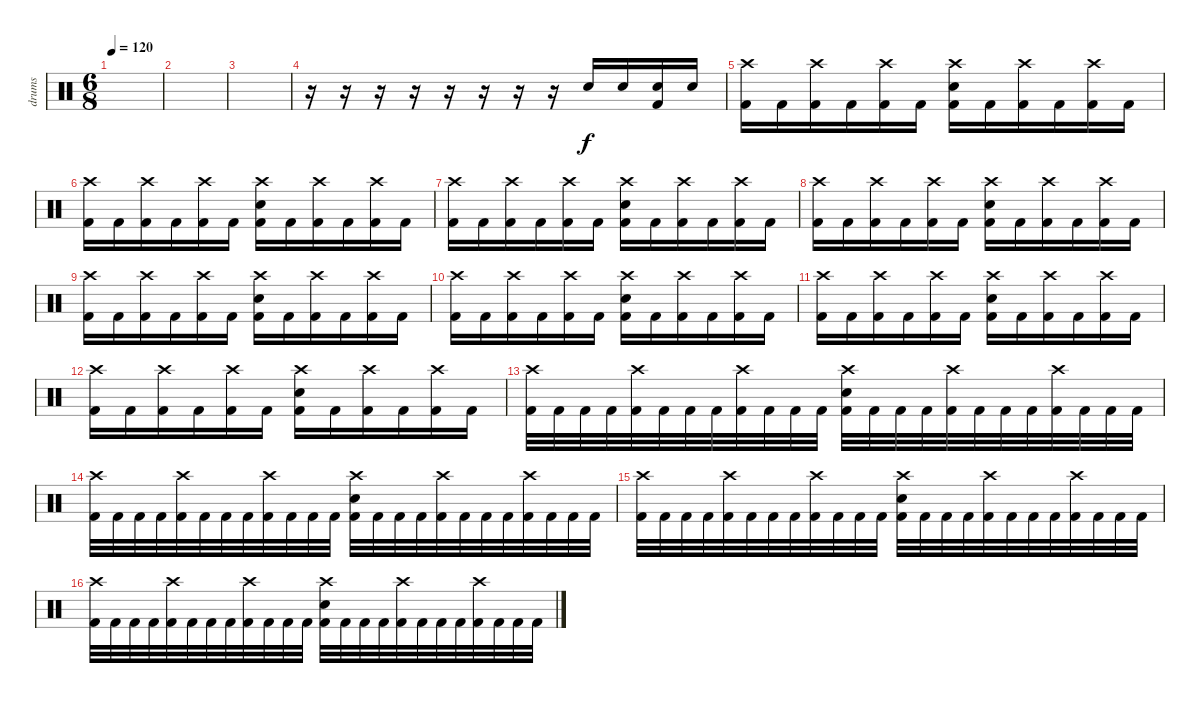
\track ("drums" "drums") {instrument percussion}
\staff {score}
\articulation defaults
\ts (6 8)
\tempo 120
\clef neutral
\ks c
|
|
|
r.16 r.16 r.16 r.16 r.16 r.16 r.16 r.16 "Electric Snare (hit)".16 "Electric Snare (hit)".16 ("Electric Snare (hit)" "Kick (hit) 2").16 "Electric Snare (hit)".16 |
("Crash high (hit)" "Kick (hit) 2").16 "Kick (hit) 2".16 ("Crash high (hit)" "Kick (hit) 2").16 "Kick (hit) 2".16 ("Crash high (hit)" "Kick (hit) 2").16 "Kick (hit) 2".16 ("Crash high (hit)" "Electric Snare (hit)" "Kick (hit) 2").16 "Kick (hit) 2".16 ("Crash high (hit)" "Kick (hit) 2").16 "Kick (hit) 2".16 ("Crash high (hit)" "Kick (hit) 2").16 "Kick (hit) 2".16 |
("Crash high (hit)" "Kick (hit) 2").16 "Kick (hit) 2".16 ("Crash high (hit)" "Kick (hit) 2").16 "Kick (hit) 2".16 ("Crash high (hit)" "Kick (hit) 2").16 "Kick (hit) 2".16 ("Crash high (hit)" "Electric Snare (hit)" "Kick (hit) 2").16 "Kick (hit) 2".16 ("Crash high (hit)" "Kick (hit) 2").16 "Kick (hit) 2".16 ("Crash high (hit)" "Kick (hit) 2").16 "Kick (hit) 2".16 |
("Crash high (hit)" "Kick (hit) 2").16 "Kick (hit) 2".16 ("Crash high (hit)" "Kick (hit) 2").16 "Kick (hit) 2".16 ("Crash high (hit)" "Kick (hit) 2").16 "Kick (hit) 2".16 ("Crash high (hit)" "Electric Snare (hit)" "Kick (hit) 2").16 "Kick (hit) 2".16 ("Crash high (hit)" "Kick (hit) 2").16 "Kick (hit) 2".16 ("Crash high (hit)" "Kick (hit) 2").16 "Kick (hit) 2".16 |
("Crash high (hit)" "Kick (hit) 2").16 "Kick (hit) 2".16 ("Crash high (hit)" "Kick (hit) 2").16 "Kick (hit) 2".16 ("Crash high (hit)" "Kick (hit) 2").16 "Kick (hit) 2".16 ("Crash high (hit)" "Electric Snare (hit)" "Kick (hit) 2").16 "Kick (hit) 2".16 ("Crash high (hit)" "Kick (hit) 2").16 "Kick (hit) 2".16 ("Crash high (hit)" "Kick (hit) 2").16 "Kick (hit) 2".16 |
("Crash high (hit)" "Kick (hit) 2").16 "Kick (hit) 2".16 ("Crash high (hit)" "Kick (hit) 2").16 "Kick (hit) 2".16 ("Crash high (hit)" "Kick (hit) 2").16 "Kick (hit) 2".16 ("Crash high (hit)" "Electric Snare (hit)" "Kick (hit) 2").16 "Kick (hit) 2".16 ("Crash high (hit)" "Kick (hit) 2").16 "Kick (hit) 2".16 ("Crash high (hit)" "Kick (hit) 2").16 "Kick (hit) 2".16 |
("Crash high (hit)" "Kick (hit) 2").16 "Kick (hit) 2".16 ("Crash high (hit)" "Kick (hit) 2").16 "Kick (hit) 2".16 ("Crash high (hit)" "Kick (hit) 2").16 "Kick (hit) 2".16 ("Crash high (hit)" "Electric Snare (hit)" "Kick (hit) 2").16 "Kick (hit) 2".16 ("Crash high (hit)" "Kick (hit) 2").16 "Kick (hit) 2".16 ("Crash high (hit)" "Kick (hit) 2").16 "Kick (hit) 2".16 |
("Crash high (hit)" "Kick (hit) 2").16 "Kick (hit) 2".16 ("Crash high (hit)" "Kick (hit) 2").16 "Kick (hit) 2".16 ("Crash high (hit)" "Kick (hit) 2").16 "Kick (hit) 2".16 ("Crash high (hit)" "Electric Snare (hit)" "Kick (hit) 2").16 "Kick (hit) 2".16 ("Crash high (hit)" "Kick (hit) 2").16 "Kick (hit) 2".16 ("Crash high (hit)" "Kick (hit) 2").16 "Kick (hit) 2".16 |
("Crash high (hit)" "Kick (hit) 2").16 "Kick (hit) 2".16 ("Crash high (hit)" "Kick (hit) 2").16 "Kick (hit) 2".16 ("Crash high (hit)" "Kick (hit) 2").16 "Kick (hit) 2".16 ("Crash high (hit)" "Electric Snare (hit)" "Kick (hit) 2").16 "Kick (hit) 2".16 ("Crash high (hit)" "Kick (hit) 2").16 "Kick (hit) 2".16 ("Crash high (hit)" "Kick (hit) 2").16 "Kick (hit) 2".16 |
("Crash high (hit)" "Kick (hit) 2").32 "Kick (hit) 2".32 "Kick (hit) 2".32 "Kick (hit) 2".32 ("Crash high (hit)" "Kick (hit) 2").32 "Kick (hit) 2".32 "Kick (hit) 2".32 "Kick (hit) 2".32 ("Crash high (hit)" "Kick (hit) 2").32 "Kick (hit) 2".32 "Kick (hit) 2".32 "Kick (hit) 2".32 ("Crash high (hit)" "Electric Snare (hit)" "Kick (hit) 2").32 "Kick (hit) 2".32 "Kick (hit) 2".32 "Kick (hit) 2".32 ("Crash high (hit)" "Kick (hit) 2").32 "Kick (hit) 2".32 "Kick (hit) 2".32 "Kick (hit) 2".32 ("Crash high (hit)" "Kick (hit) 2").32 "Kick (hit) 2".32 "Kick (hit) 2".32 "Kick (hit) 2".32 |
("Crash high (hit)" "Kick (hit) 2").32 "Kick (hit) 2".32 "Kick (hit) 2".32 "Kick (hit) 2".32 ("Crash high (hit)" "Kick (hit) 2").32 "Kick (hit) 2".32 "Kick (hit) 2".32 "Kick (hit) 2".32 ("Crash high (hit)" "Kick (hit) 2").32 "Kick (hit) 2".32 "Kick (hit) 2".32 "Kick (hit) 2".32 ("Crash high (hit)" "Electric Snare (hit)" "Kick (hit) 2").32 "Kick (hit) 2".32 "Kick (hit) 2".32 "Kick (hit) 2".32 ("Crash high (hit)" "Kick (hit) 2").32 "Kick (hit) 2".32 "Kick (hit) 2".32 "Kick (hit) 2".32 ("Crash high (hit)" "Kick (hit) 2").32 "Kick (hit) 2".32 "Kick (hit) 2".32 "Kick (hit) 2".32 |
("Crash high (hit)" "Kick (hit) 2").32 "Kick (hit) 2".32 "Kick (hit) 2".32 "Kick (hit) 2".32 ("Crash high (hit)" "Kick (hit) 2").32 "Kick (hit) 2".32 "Kick (hit) 2".32 "Kick (hit) 2".32 ("Crash high (hit)" "Kick (hit) 2").32 "Kick (hit) 2".32 "Kick (hit) 2".32 "Kick (hit) 2".32 ("Crash high (hit)" "Electric Snare (hit)" "Kick (hit) 2").32 "Kick (hit) 2".32 "Kick (hit) 2".32 "Kick (hit) 2".32 ("Crash high (hit)" "Kick (hit) 2").32 "Kick (hit) 2".32 "Kick (hit) 2".32 "Kick (hit) 2".32 ("Crash high (hit)" "Kick (hit) 2").32 "Kick (hit) 2".32 "Kick (hit) 2".32 "Kick (hit) 2".32 |
("Crash high (hit)" "Kick (hit) 2").32 "Kick (hit) 2".32 "Kick (hit) 2".32 "Kick (hit) 2".32 ("Crash high (hit)" "Kick (hit) 2").32 "Kick (hit) 2".32 "Kick (hit) 2".32 "Kick (hit) 2".32 ("Crash high (hit)" "Kick (hit) 2").32 "Kick (hit) 2".32 "Kick (hit) 2".32 "Kick (hit) 2".32 ("Crash high (hit)" "Electric Snare (hit)" "Kick (hit) 2").32 "Kick (hit) 2".32 "Kick (hit) 2".32 "Kick (hit) 2".32 ("Crash high (hit)" "Kick (hit) 2").32 "Kick (hit) 2".32 "Kick (hit) 2".32 "Kick (hit) 2".32 ("Crash high (hit)" "Kick (hit) 2").32 "Kick (hit) 2".32 "Kick (hit) 2".32 "Kick (hit) 2".32
